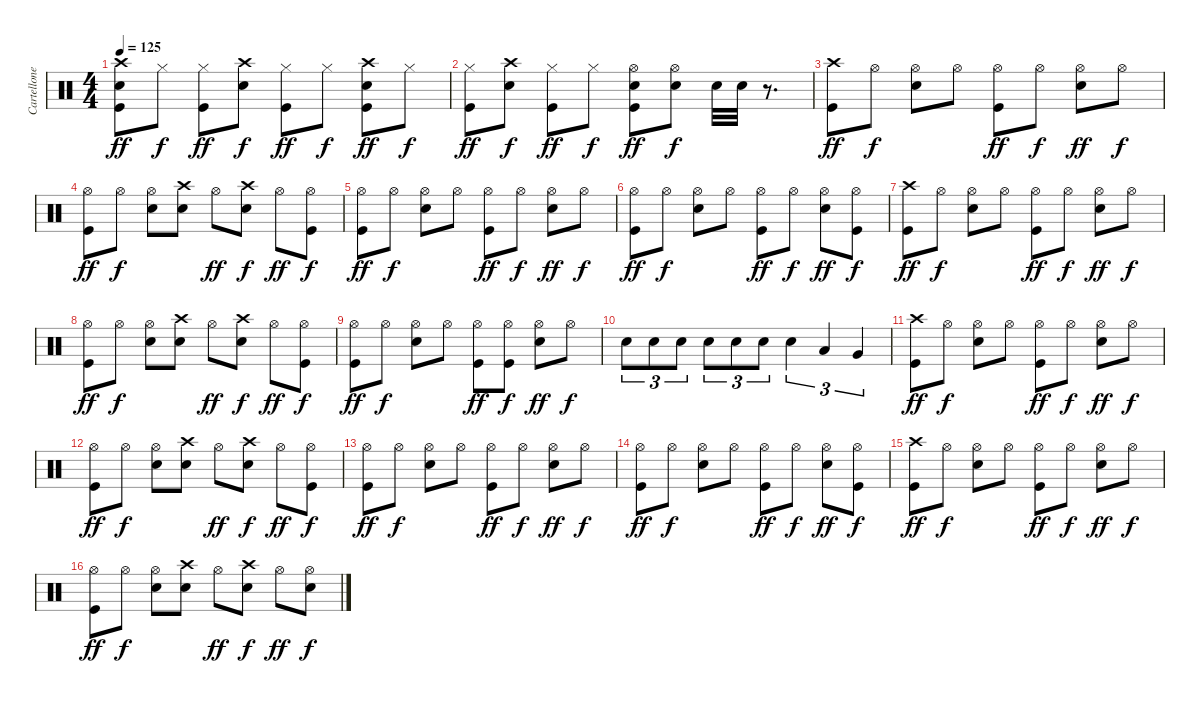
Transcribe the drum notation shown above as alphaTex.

\track ("Cartellone" "Cartellone") {instrument percussion}
\staff {score}
\articulation defaults
\ts (4 4)
\tempo 125
\clef neutral
\ks c
("Crash high (hit)" "Snare (hit) 2" "Kick (hit)").8{dy ff} "Hi-Hat (closed)".8{dy f} ("Hi-Hat (closed)" "Kick (hit)").8{dy ff} ("Crash high (hit)" "Snare (hit) 2").8{dy f} ("Hi-Hat (closed)" "Kick (hit)").8{dy ff} "Hi-Hat (closed)".8{dy f} ("Crash high (hit)" "Snare (hit) 2" "Kick (hit)").8{dy ff} "Hi-Hat (closed)".8{dy f} |
("Hi-Hat (closed)" "Kick (hit)").8{dy ff} ("Crash high (hit)" "Snare (hit) 2").8{dy f} ("Hi-Hat (closed)" "Kick (hit)").8{dy ff} "Hi-Hat (closed)".8{dy f} ("Hi-Hat (open)" "Snare (hit) 2" "Kick (hit)").8{dy ff} ("Hi-Hat (open)" "Snare (hit) 2").8{dy f} "Snare (hit) 2".32 "Snare (hit) 2".32 r.8{d} |
("Crash high (hit)" "Kick (hit)").8{dy ff} "Hi-Hat (open)".8{dy f} ("Hi-Hat (open)" "Snare (hit) 2").8 "Hi-Hat (open)".8 ("Hi-Hat (open)" "Kick (hit)").8{dy ff} "Hi-Hat (open)".8{dy f} ("Hi-Hat (open)" "Snare (hit) 2").8{dy ff} "Hi-Hat (open)".8{dy f} |
("Hi-Hat (open)" "Kick (hit)").8{dy ff} "Hi-Hat (open)".8{dy f} ("Hi-Hat (open)" "Snare (hit) 2").8 ("Crash high (hit)" "Snare (hit) 2").8 "Hi-Hat (open)".8{dy ff} ("Crash high (hit)" "Snare (hit) 2").8{dy f} "Hi-Hat (open)".8{dy ff} ("Hi-Hat (open)" "Kick (hit)").8{dy f} |
("Hi-Hat (open)" "Kick (hit)").8{dy ff} "Hi-Hat (open)".8{dy f} ("Hi-Hat (open)" "Snare (hit) 2").8 "Hi-Hat (open)".8 ("Hi-Hat (open)" "Kick (hit)").8{dy ff} "Hi-Hat (open)".8{dy f} ("Hi-Hat (open)" "Snare (hit) 2").8{dy ff} "Hi-Hat (open)".8{dy f} |
("Hi-Hat (open)" "Kick (hit)").8{dy ff} "Hi-Hat (open)".8{dy f} ("Hi-Hat (open)" "Snare (hit) 2").8 "Hi-Hat (open)".8 ("Hi-Hat (open)" "Kick (hit)").8{dy ff} "Hi-Hat (open)".8{dy f} ("Hi-Hat (open)" "Snare (hit) 2").8{dy ff} ("Hi-Hat (open)" "Kick (hit)").8{dy f} |
("Crash high (hit)" "Kick (hit)").8{dy ff} "Hi-Hat (open)".8{dy f} ("Hi-Hat (open)" "Snare (hit) 2").8 "Hi-Hat (open)".8 ("Hi-Hat (open)" "Kick (hit)").8{dy ff} "Hi-Hat (open)".8{dy f} ("Hi-Hat (open)" "Snare (hit) 2").8{dy ff} "Hi-Hat (open)".8{dy f} |
("Hi-Hat (open)" "Kick (hit)").8{dy ff} "Hi-Hat (open)".8{dy f} ("Hi-Hat (open)" "Snare (hit) 2").8 ("Crash high (hit)" "Snare (hit) 2").8 "Hi-Hat (open)".8{dy ff} ("Crash high (hit)" "Snare (hit) 2").8{dy f} "Hi-Hat (open)".8{dy ff} ("Hi-Hat (open)" "Kick (hit)").8{dy f} |
("Hi-Hat (open)" "Kick (hit)").8{dy ff} "Hi-Hat (open)".8{dy f} ("Hi-Hat (open)" "Snare (hit) 2").8 "Hi-Hat (open)".8 ("Hi-Hat (open)" "Kick (hit)").8{dy ff} ("Hi-Hat (open)" "Kick (hit)").8{dy f} ("Hi-Hat (open)" "Snare (hit) 2").8{dy ff} "Hi-Hat (open)".8{dy f} |
"Snare (hit) 2".8{tu (3 2)} "Snare (hit) 2".8{tu (3 2)} "Snare (hit) 2".8{tu (3 2)} "Snare (hit) 2".8{tu (3 2)} "Snare (hit) 2".8{tu (3 2)} "Snare (hit) 2".8{tu (3 2)} "Snare (hit) 2".4{tu (3 2)} "Low Tom (hit)".4{tu (3 2)} "Very Low Tom (hit)".4{tu (3 2)} |
("Crash high (hit)" "Kick (hit)").8{dy ff} "Hi-Hat (open)".8{dy f} ("Hi-Hat (open)" "Snare (hit) 2").8 "Hi-Hat (open)".8 ("Hi-Hat (open)" "Kick (hit)").8{dy ff} "Hi-Hat (open)".8{dy f} ("Hi-Hat (open)" "Snare (hit) 2").8{dy ff} "Hi-Hat (open)".8{dy f} |
("Hi-Hat (open)" "Kick (hit)").8{dy ff} "Hi-Hat (open)".8{dy f} ("Hi-Hat (open)" "Snare (hit) 2").8 ("Crash high (hit)" "Snare (hit) 2").8 "Hi-Hat (open)".8{dy ff} ("Crash high (hit)" "Snare (hit) 2").8{dy f} "Hi-Hat (open)".8{dy ff} ("Hi-Hat (open)" "Kick (hit)").8{dy f} |
("Hi-Hat (open)" "Kick (hit)").8{dy ff} "Hi-Hat (open)".8{dy f} ("Hi-Hat (open)" "Snare (hit) 2").8 "Hi-Hat (open)".8 ("Hi-Hat (open)" "Kick (hit)").8{dy ff} "Hi-Hat (open)".8{dy f} ("Hi-Hat (open)" "Snare (hit) 2").8{dy ff} "Hi-Hat (open)".8{dy f} |
("Hi-Hat (open)" "Kick (hit)").8{dy ff} "Hi-Hat (open)".8{dy f} ("Hi-Hat (open)" "Snare (hit) 2").8 "Hi-Hat (open)".8 ("Hi-Hat (open)" "Kick (hit)").8{dy ff} "Hi-Hat (open)".8{dy f} ("Hi-Hat (open)" "Snare (hit) 2").8{dy ff} ("Hi-Hat (open)" "Kick (hit)").8{dy f} |
("Crash high (hit)" "Kick (hit)").8{dy ff} "Hi-Hat (open)".8{dy f} ("Hi-Hat (open)" "Snare (hit) 2").8 "Hi-Hat (open)".8 ("Hi-Hat (open)" "Kick (hit)").8{dy ff} "Hi-Hat (open)".8{dy f} ("Hi-Hat (open)" "Snare (hit) 2").8{dy ff} "Hi-Hat (open)".8{dy f} |
("Hi-Hat (open)" "Kick (hit)").8{dy ff} "Hi-Hat (open)".8{dy f} ("Hi-Hat (open)" "Snare (hit) 2").8 ("Crash high (hit)" "Snare (hit) 2").8 "Hi-Hat (open)".8{dy ff} ("Crash high (hit)" "Snare (hit) 2").8{dy f} "Hi-Hat (open)".8{dy ff} ("Hi-Hat (open)" "Snare (hit) 2").8{dy f}
